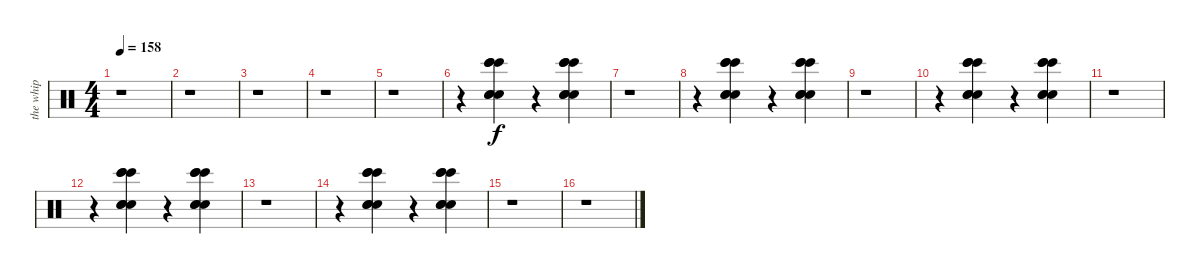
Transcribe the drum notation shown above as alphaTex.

\track ("the whip " "the whip ") {instrument percussion}
\staff {score}
\articulation defaults
\ts (4 4)
\tempo 158
\clef neutral
\ks c
r.1{dy f} |
r.1 |
r.1 |
r.1 |
r.1 |
r.4 ("Hand Clap (hit)" "Hand Clap (hit)" "Hand Clap (hit)" "Bongo High (hit)" "Bongo High (hit)" "Bongo High (hit)").4 r.4 ("Hand Clap (hit)" "Hand Clap (hit)" "Hand Clap (hit)" "Bongo High (hit)" "Bongo High (hit)" "Bongo High (hit)").4 |
r.1 |
r.4 ("Hand Clap (hit)" "Hand Clap (hit)" "Hand Clap (hit)" "Bongo High (hit)" "Bongo High (hit)" "Bongo High (hit)").4 r.4 ("Hand Clap (hit)" "Hand Clap (hit)" "Hand Clap (hit)" "Bongo High (hit)" "Bongo High (hit)" "Bongo High (hit)").4 |
r.1 |
r.4 ("Hand Clap (hit)" "Hand Clap (hit)" "Hand Clap (hit)" "Bongo High (hit)" "Bongo High (hit)" "Bongo High (hit)").4 r.4 ("Hand Clap (hit)" "Hand Clap (hit)" "Hand Clap (hit)" "Bongo High (hit)" "Bongo High (hit)" "Bongo High (hit)").4 |
r.1 |
r.4 ("Hand Clap (hit)" "Hand Clap (hit)" "Hand Clap (hit)" "Bongo High (hit)" "Bongo High (hit)" "Bongo High (hit)").4 r.4 ("Hand Clap (hit)" "Hand Clap (hit)" "Hand Clap (hit)" "Bongo High (hit)" "Bongo High (hit)" "Bongo High (hit)").4 |
r.1 |
r.4 ("Hand Clap (hit)" "Hand Clap (hit)" "Hand Clap (hit)" "Bongo High (hit)" "Bongo High (hit)" "Bongo High (hit)").4 r.4 ("Hand Clap (hit)" "Hand Clap (hit)" "Hand Clap (hit)" "Bongo High (hit)" "Bongo High (hit)" "Bongo High (hit)").4 |
r.1 |
r.1
